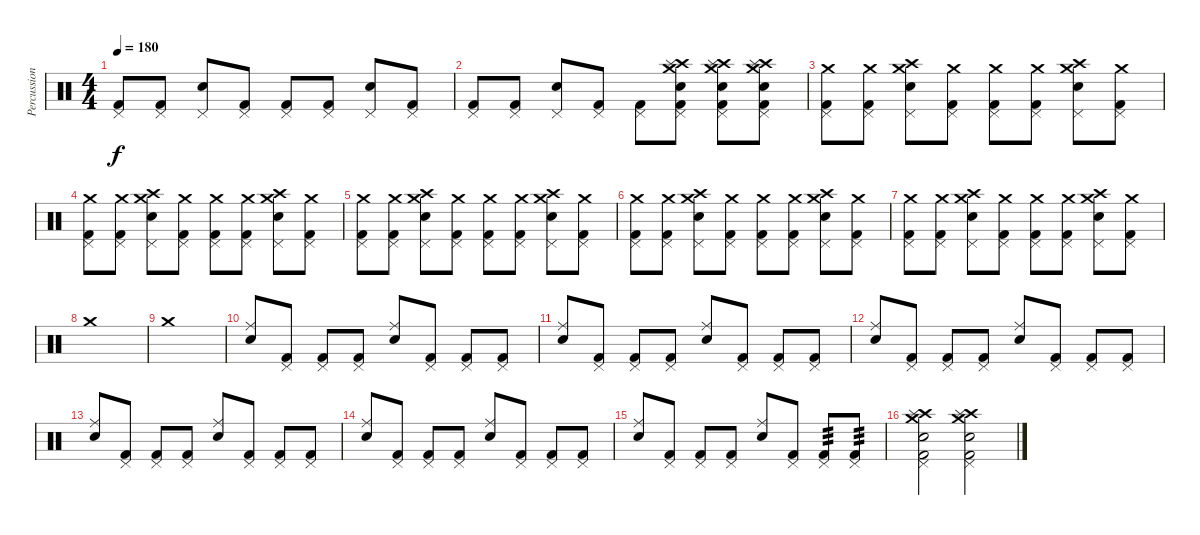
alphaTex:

\track ("Percussion" "Percussion") {instrument percussion}
\staff
\articulation defaults
\ts (4 4)
\tempo 180
\clef neutral
\ks c
("Pedal Hi-Hat (hit)" "Kick (hit) 2").8{dy f} ("Pedal Hi-Hat (hit)" "Kick (hit) 2").8 ("Pedal Hi-Hat (hit)" "Snare (hit) 2").8 ("Pedal Hi-Hat (hit)" "Kick (hit) 2").8 ("Pedal Hi-Hat (hit)" "Kick (hit) 2").8 ("Pedal Hi-Hat (hit)" "Kick (hit) 2").8 ("Pedal Hi-Hat (hit)" "Snare (hit) 2").8 ("Pedal Hi-Hat (hit)" "Kick (hit) 2").8 |
("Pedal Hi-Hat (hit)" "Kick (hit) 2").8 ("Pedal Hi-Hat (hit)" "Kick (hit) 2").8 ("Pedal Hi-Hat (hit)" "Snare (hit) 2").8 ("Pedal Hi-Hat (hit)" "Kick (hit) 2").8 ("Pedal Hi-Hat (hit)" "Kick (hit) 2").8 ("Pedal Hi-Hat (hit)" "Crash high (hit)" "Crash medium (hit)" "Splash (hit)" "Snare (hit) 2" "Kick (hit) 2").8 ("Pedal Hi-Hat (hit)" "Crash high (hit)" "Crash medium (hit)" "Splash (hit)" "Snare (hit) 2" "Kick (hit) 2").8 ("Pedal Hi-Hat (hit)" "Crash high (hit)" "Crash medium (hit)" "Splash (hit)" "Snare (hit) 2" "Kick (hit) 2").8 |
("Pedal Hi-Hat (hit)" "Crash medium (hit)" "Kick (hit) 2").8 ("Pedal Hi-Hat (hit)" "Crash medium (hit)" "Kick (hit) 2").8 ("Pedal Hi-Hat (hit)" "Crash high (hit)" "Crash medium (hit)" "Snare (hit) 2").8 ("Pedal Hi-Hat (hit)" "Crash medium (hit)" "Kick (hit) 2").8 ("Pedal Hi-Hat (hit)" "Crash medium (hit)" "Kick (hit) 2").8 ("Pedal Hi-Hat (hit)" "Crash medium (hit)" "Kick (hit) 2").8 ("Pedal Hi-Hat (hit)" "Crash high (hit)" "Crash medium (hit)" "Snare (hit) 2").8 ("Pedal Hi-Hat (hit)" "Crash medium (hit)" "Kick (hit) 2").8 |
("Pedal Hi-Hat (hit)" "Crash medium (hit)" "Kick (hit) 2").8 ("Pedal Hi-Hat (hit)" "Crash medium (hit)" "Kick (hit) 2").8 ("Pedal Hi-Hat (hit)" "Crash high (hit)" "Crash medium (hit)" "Snare (hit) 2").8 ("Pedal Hi-Hat (hit)" "Crash medium (hit)" "Kick (hit) 2").8 ("Pedal Hi-Hat (hit)" "Crash medium (hit)" "Kick (hit) 2").8 ("Pedal Hi-Hat (hit)" "Crash medium (hit)" "Kick (hit) 2").8 ("Pedal Hi-Hat (hit)" "Crash high (hit)" "Crash medium (hit)" "Snare (hit) 2").8 ("Pedal Hi-Hat (hit)" "Crash medium (hit)" "Kick (hit) 2").8 |
("Pedal Hi-Hat (hit)" "Crash medium (hit)" "Kick (hit) 2").8 ("Pedal Hi-Hat (hit)" "Crash medium (hit)" "Kick (hit) 2").8 ("Pedal Hi-Hat (hit)" "Crash high (hit)" "Crash medium (hit)" "Snare (hit) 2").8 ("Pedal Hi-Hat (hit)" "Crash medium (hit)" "Kick (hit) 2").8 ("Pedal Hi-Hat (hit)" "Crash medium (hit)" "Kick (hit) 2").8 ("Pedal Hi-Hat (hit)" "Crash medium (hit)" "Kick (hit) 2").8 ("Pedal Hi-Hat (hit)" "Crash high (hit)" "Crash medium (hit)" "Snare (hit) 2").8 ("Pedal Hi-Hat (hit)" "Crash medium (hit)" "Kick (hit) 2").8 |
("Pedal Hi-Hat (hit)" "Crash medium (hit)" "Kick (hit) 2").8 ("Pedal Hi-Hat (hit)" "Crash medium (hit)" "Kick (hit) 2").8 ("Pedal Hi-Hat (hit)" "Crash high (hit)" "Crash medium (hit)" "Snare (hit) 2").8 ("Pedal Hi-Hat (hit)" "Crash medium (hit)" "Kick (hit) 2").8 ("Pedal Hi-Hat (hit)" "Crash medium (hit)" "Kick (hit) 2").8 ("Pedal Hi-Hat (hit)" "Crash medium (hit)" "Kick (hit) 2").8 ("Pedal Hi-Hat (hit)" "Crash high (hit)" "Crash medium (hit)" "Snare (hit) 2").8 ("Pedal Hi-Hat (hit)" "Crash medium (hit)" "Kick (hit) 2").8 |
("Pedal Hi-Hat (hit)" "Crash medium (hit)" "Kick (hit) 2").8 ("Pedal Hi-Hat (hit)" "Crash medium (hit)" "Kick (hit) 2").8 ("Pedal Hi-Hat (hit)" "Crash high (hit)" "Crash medium (hit)" "Snare (hit) 2").8 ("Pedal Hi-Hat (hit)" "Crash medium (hit)" "Kick (hit) 2").8 ("Pedal Hi-Hat (hit)" "Crash medium (hit)" "Kick (hit) 2").8 ("Pedal Hi-Hat (hit)" "Crash medium (hit)" "Kick (hit) 2").8 ("Pedal Hi-Hat (hit)" "Crash high (hit)" "Crash medium (hit)" "Snare (hit) 2").8 ("Pedal Hi-Hat (hit)" "Crash medium (hit)" "Kick (hit) 2").8 |
"Crash medium (hit)".1 |
"Crash medium (hit)".1 |
("Ride (middle)" "Snare (hit) 2").8 ("Pedal Hi-Hat (hit)" "Kick (hit) 2").8 ("Pedal Hi-Hat (hit)" "Kick (hit) 2").8 ("Pedal Hi-Hat (hit)" "Kick (hit) 2").8 ("Ride (middle)" "Snare (hit) 2").8 ("Pedal Hi-Hat (hit)" "Kick (hit) 2").8 ("Pedal Hi-Hat (hit)" "Kick (hit) 2").8 ("Pedal Hi-Hat (hit)" "Kick (hit) 2").8 |
("Ride (middle)" "Snare (hit) 2").8 ("Pedal Hi-Hat (hit)" "Kick (hit) 2").8 ("Pedal Hi-Hat (hit)" "Kick (hit) 2").8 ("Pedal Hi-Hat (hit)" "Kick (hit) 2").8 ("Ride (middle)" "Snare (hit) 2").8 ("Pedal Hi-Hat (hit)" "Kick (hit) 2").8 ("Pedal Hi-Hat (hit)" "Kick (hit) 2").8 ("Pedal Hi-Hat (hit)" "Kick (hit) 2").8 |
("Ride (middle)" "Snare (hit) 2").8 ("Pedal Hi-Hat (hit)" "Kick (hit) 2").8 ("Pedal Hi-Hat (hit)" "Kick (hit) 2").8 ("Pedal Hi-Hat (hit)" "Kick (hit) 2").8 ("Ride (middle)" "Snare (hit) 2").8 ("Pedal Hi-Hat (hit)" "Kick (hit) 2").8 ("Pedal Hi-Hat (hit)" "Kick (hit) 2").8 ("Pedal Hi-Hat (hit)" "Kick (hit) 2").8 |
("Ride (middle)" "Snare (hit) 2").8 ("Pedal Hi-Hat (hit)" "Kick (hit) 2").8 ("Pedal Hi-Hat (hit)" "Kick (hit) 2").8 ("Pedal Hi-Hat (hit)" "Kick (hit) 2").8 ("Ride (middle)" "Snare (hit) 2").8 ("Pedal Hi-Hat (hit)" "Kick (hit) 2").8 ("Pedal Hi-Hat (hit)" "Kick (hit) 2").8 ("Pedal Hi-Hat (hit)" "Kick (hit) 2").8 |
("Ride (middle)" "Snare (hit) 2").8 ("Pedal Hi-Hat (hit)" "Kick (hit) 2").8 ("Pedal Hi-Hat (hit)" "Kick (hit) 2").8 ("Pedal Hi-Hat (hit)" "Kick (hit) 2").8 ("Ride (middle)" "Snare (hit) 2").8 ("Pedal Hi-Hat (hit)" "Kick (hit) 2").8 ("Pedal Hi-Hat (hit)" "Kick (hit) 2").8 ("Pedal Hi-Hat (hit)" "Kick (hit) 2").8 |
("Ride (middle)" "Snare (hit) 2").8 ("Pedal Hi-Hat (hit)" "Kick (hit) 2").8 ("Pedal Hi-Hat (hit)" "Kick (hit) 2").8 ("Pedal Hi-Hat (hit)" "Kick (hit) 2").8 ("Ride (middle)" "Snare (hit) 2").8 ("Pedal Hi-Hat (hit)" "Kick (hit) 2").8 ("Pedal Hi-Hat (hit)" "Kick (hit) 2").8{tp 3} ("Pedal Hi-Hat (hit)" "Kick (hit) 2").8{tp 3} |
("Pedal Hi-Hat (hit)" "Crash high (hit)" "Crash medium (hit)" "Splash (hit)" "Snare (hit) 2" "Kick (hit) 2").2 ("Pedal Hi-Hat (hit)" "Crash high (hit)" "Crash medium (hit)" "Splash (hit)" "Snare (hit) 2" "Kick (hit) 2").2
